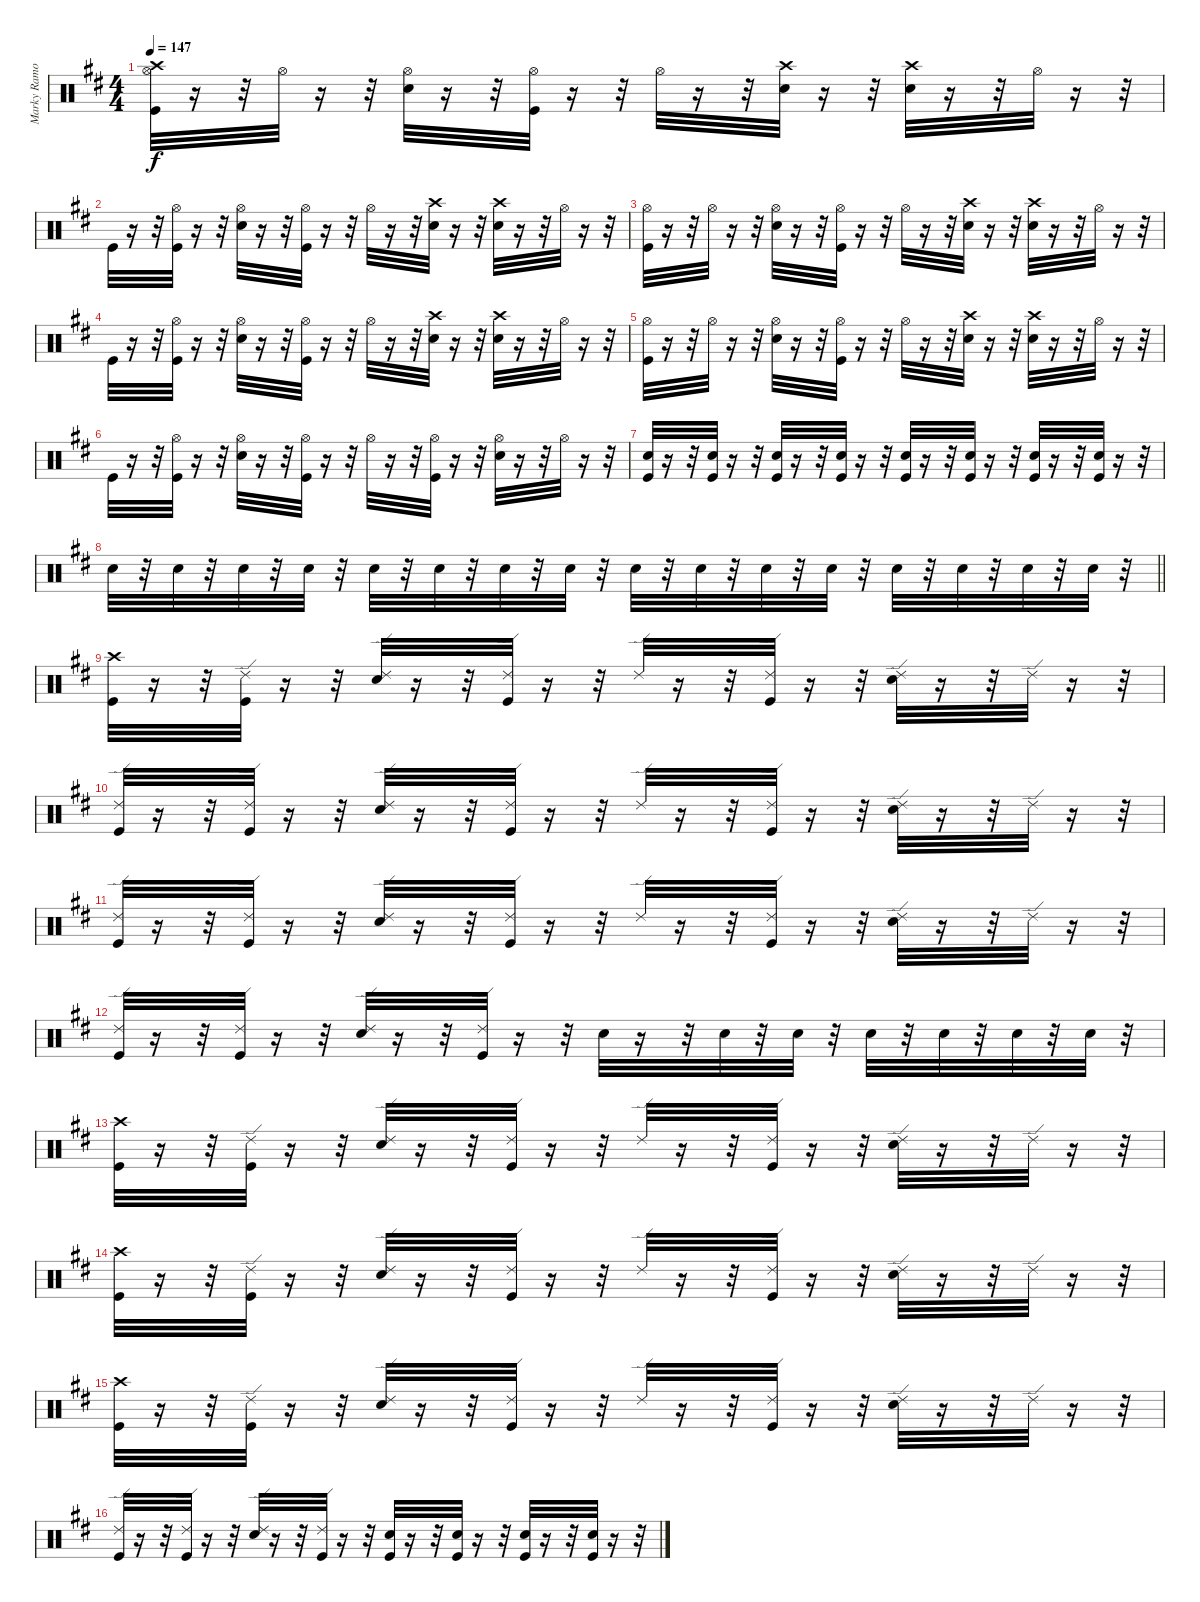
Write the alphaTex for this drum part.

\track ("Marky Ramone" "Marky Ramo") {instrument percussion}
\staff {score}
\articulation defaults
\ts (4 4)
\tempo 147
\clef neutral
\ks d
("Hi-Hat (open)" "Crash high (hit)" "Kick (hit)").32{dy f} r.16 r.32 "Hi-Hat (open)".32 r.16 r.32 ("Hi-Hat (open)" "Electric Snare (hit)").32 r.16 r.32 ("Hi-Hat (open)" "Kick (hit)").32 r.16 r.32 "Hi-Hat (open)".32 r.16 r.32 ("Crash high (hit)" "Electric Snare (hit)").32 r.16 r.32 ("Crash high (hit)" "Electric Snare (hit)").32 r.16 r.32 "Hi-Hat (open)".32 r.16 r.32 |
"Kick (hit)".32 r.16 r.32 ("Hi-Hat (open)" "Kick (hit)").32 r.16 r.32 ("Hi-Hat (open)" "Electric Snare (hit)").32 r.16 r.32 ("Hi-Hat (open)" "Kick (hit)").32 r.16 r.32 "Hi-Hat (open)".32 r.16 r.32 ("Crash high (hit)" "Electric Snare (hit)").32 r.16 r.32 ("Crash high (hit)" "Electric Snare (hit)").32 r.16 r.32 "Hi-Hat (open)".32 r.16 r.32 |
("Hi-Hat (open)" "Kick (hit)").32 r.16 r.32 "Hi-Hat (open)".32 r.16 r.32 ("Hi-Hat (open)" "Electric Snare (hit)").32 r.16 r.32 ("Hi-Hat (open)" "Kick (hit)").32 r.16 r.32 "Hi-Hat (open)".32 r.16 r.32 ("Crash high (hit)" "Electric Snare (hit)").32 r.16 r.32 ("Crash high (hit)" "Electric Snare (hit)").32 r.16 r.32 "Hi-Hat (open)".32 r.16 r.32 |
"Kick (hit)".32 r.16 r.32 ("Hi-Hat (open)" "Kick (hit)").32 r.16 r.32 ("Hi-Hat (open)" "Electric Snare (hit)").32 r.16 r.32 ("Hi-Hat (open)" "Kick (hit)").32 r.16 r.32 "Hi-Hat (open)".32 r.16 r.32 ("Crash high (hit)" "Electric Snare (hit)").32 r.16 r.32 ("Crash high (hit)" "Electric Snare (hit)").32 r.16 r.32 "Hi-Hat (open)".32 r.16 r.32 |
("Hi-Hat (open)" "Kick (hit)").32 r.16 r.32 "Hi-Hat (open)".32 r.16 r.32 ("Hi-Hat (open)" "Electric Snare (hit)").32 r.16 r.32 ("Hi-Hat (open)" "Kick (hit)").32 r.16 r.32 "Hi-Hat (open)".32 r.16 r.32 ("Crash high (hit)" "Electric Snare (hit)").32 r.16 r.32 ("Crash high (hit)" "Electric Snare (hit)").32 r.16 r.32 "Hi-Hat (open)".32 r.16 r.32 |
"Kick (hit)".32 r.16 r.32 ("Hi-Hat (open)" "Kick (hit)").32 r.16 r.32 ("Hi-Hat (open)" "Electric Snare (hit)").32 r.16 r.32 ("Hi-Hat (open)" "Kick (hit)").32 r.16 r.32 "Hi-Hat (open)".32 r.16 r.32 ("Kick (hit)" "Hi-Hat (open)").32 r.16 r.32 ("Electric Snare (hit)" "Hi-Hat (open)").32 r.16 r.32 "Hi-Hat (open)".32 r.16 r.32 |
("Kick (hit)" "Electric Snare (hit)").32 r.16 r.32 ("Kick (hit)" "Electric Snare (hit)").32 r.16 r.32 ("Kick (hit)" "Electric Snare (hit)").32 r.16 r.32 ("Kick (hit)" "Electric Snare (hit)").32 r.16 r.32 ("Kick (hit)" "Electric Snare (hit)").32 r.16 r.32 ("Kick (hit)" "Electric Snare (hit)").32 r.16 r.32 ("Kick (hit)" "Electric Snare (hit)").32 r.16 r.32 ("Kick (hit)" "Electric Snare (hit)").32 r.16 r.32 |
\barLineRight lightlight "Electric Snare (hit)".32
r.32 "Electric Snare (hit)".32 r.32 "Electric Snare (hit)".32 r.32 "Electric Snare (hit)".32 r.32 "Electric Snare (hit)".32 r.32 "Electric Snare (hit)".32 r.32 "Electric Snare (hit)".32 r.32 "Electric Snare (hit)".32 r.32 "Electric Snare (hit)".32 r.32 "Electric Snare (hit)".32 r.32 "Electric Snare (hit)".32 r.32 "Electric Snare (hit)".32 r.32 "Electric Snare (hit)".32 r.32 "Electric Snare (hit)".32 r.32 "Electric Snare (hit)".32 r.32 "Electric Snare (hit)".32 r.32 |
("Crash high (hit)" "Kick (hit)").32 r.16 r.32 ("Ride (edge) 2" "Kick (hit)").32 r.16 r.32 ("Ride (edge) 2" "Electric Snare (hit)").32 r.16 r.32 ("Ride (edge) 2" "Kick (hit)").32 r.16 r.32 "Ride (edge) 2".32 r.16 r.32 ("Ride (edge) 2" "Kick (hit)").32 r.16 r.32 ("Ride (edge) 2" "Electric Snare (hit)").32 r.16 r.32 "Ride (edge) 2".32 r.16 r.32 |
("Ride (edge) 2" "Kick (hit)").32 r.16 r.32 ("Ride (edge) 2" "Kick (hit)").32 r.16 r.32 ("Electric Snare (hit)" "Ride (edge) 2").32 r.16 r.32 ("Kick (hit)" "Ride (edge) 2").32 r.16 r.32 "Ride (edge) 2".32 r.16 r.32 ("Kick (hit)" "Ride (edge) 2").32 r.16 r.32 ("Ride (edge) 2" "Electric Snare (hit)").32 r.16 r.32 "Ride (edge) 2".32 r.16 r.32 |
("Ride (edge) 2" "Kick (hit)").32 r.16 r.32 ("Ride (edge) 2" "Kick (hit)").32 r.16 r.32 ("Ride (edge) 2" "Electric Snare (hit)").32 r.16 r.32 ("Ride (edge) 2" "Kick (hit)").32 r.16 r.32 "Ride (edge) 2".32 r.16 r.32 ("Ride (edge) 2" "Kick (hit)").32 r.16 r.32 ("Ride (edge) 2" "Electric Snare (hit)").32 r.16 r.32 "Ride (edge) 2".32 r.16 r.32 |
("Ride (edge) 2" "Kick (hit)").32 r.16 r.32 ("Ride (edge) 2" "Kick (hit)").32 r.16 r.32 ("Ride (edge) 2" "Electric Snare (hit)").32 r.16 r.32 ("Ride (edge) 2" "Kick (hit)").32 r.16 r.32 "Electric Snare (hit)".32 r.16 r.32 "Electric Snare (hit)".32 r.32 "Electric Snare (hit)".32 r.32 "Electric Snare (hit)".32 r.32 "Electric Snare (hit)".32 r.32 "Electric Snare (hit)".32 r.32 "Electric Snare (hit)".32 r.32 |
("Kick (hit)" "Crash high (hit)").32 r.16 r.32 ("Ride (edge) 2" "Kick (hit)").32 r.16 r.32 ("Ride (edge) 2" "Electric Snare (hit)").32 r.16 r.32 ("Ride (edge) 2" "Kick (hit)").32 r.16 r.32 "Ride (edge) 2".32 r.16 r.32 ("Ride (edge) 2" "Kick (hit)").32 r.16 r.32 ("Ride (edge) 2" "Electric Snare (hit)").32 r.16 r.32 "Ride (edge) 2".32 r.16 r.32 |
("Crash high (hit)" "Kick (hit)").32 r.16 r.32 ("Ride (edge) 2" "Kick (hit)").32 r.16 r.32 ("Ride (edge) 2" "Electric Snare (hit)").32 r.16 r.32 ("Ride (edge) 2" "Kick (hit)").32 r.16 r.32 "Ride (edge) 2".32 r.16 r.32 ("Ride (edge) 2" "Kick (hit)").32 r.16 r.32 ("Ride (edge) 2" "Electric Snare (hit)").32 r.16 r.32 "Ride (edge) 2".32 r.16 r.32 |
("Kick (hit)" "Crash high (hit)").32 r.16 r.32 ("Ride (edge) 2" "Kick (hit)").32 r.16 r.32 ("Ride (edge) 2" "Electric Snare (hit)").32 r.16 r.32 ("Ride (edge) 2" "Kick (hit)").32 r.16 r.32 "Ride (edge) 2".32 r.16 r.32 ("Ride (edge) 2" "Kick (hit)").32 r.16 r.32 ("Ride (edge) 2" "Electric Snare (hit)").32 r.16 r.32 "Ride (edge) 2".32 r.16 r.32 |
("Ride (edge) 2" "Kick (hit)").32 r.16 r.32 ("Ride (edge) 2" "Kick (hit)").32 r.16 r.32 ("Ride (edge) 2" "Electric Snare (hit)").32 r.16 r.32 ("Ride (edge) 2" "Kick (hit)").32 r.16 r.32 ("Kick (hit)" "Electric Snare (hit)").32 r.16 r.32 ("Kick (hit)" "Electric Snare (hit)").32 r.16 r.32 ("Kick (hit)" "Electric Snare (hit)").32 r.16 r.32 ("Kick (hit)" "Electric Snare (hit)").32 r.16 r.32
